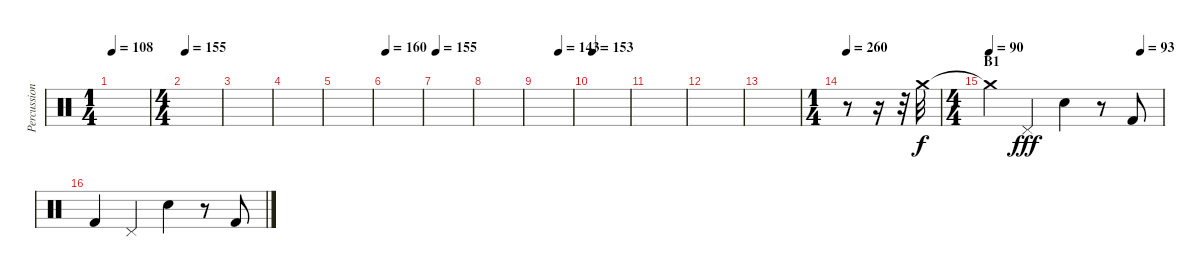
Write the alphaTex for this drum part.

\track ("Percussion" "Percussion") {instrument percussion}
\staff {score}
\articulation defaults
\ts (1 4)
\tempo 108
\tempo 175
\tempo 108
\clef neutral
\ks c
|
\ts (4 4)
\tempo 155
|
|
|
|
\tempo 160
|
\tempo 155
|
|
\tempo (143 0.625)
|
\tempo 153
|
|
|
|
\ts (1 4)
\tempo 260
r.8 r.16 r.32 "Crash medium (hit)".32 |
\ts (4 4)
\section ("" "B1")
\tempo 90
\tempo (93 0.875)
"Crash medium (hit)"{t}.4{dy f} "Pedal Hi-Hat (hit)".4{dy fff} "Electric Snare (hit)".4 r.8 "Kick (hit) 2".8 |
"Kick (hit) 2".4 "Pedal Hi-Hat (hit)".4 "Electric Snare (hit)".4 r.8 "Kick (hit) 2".8
